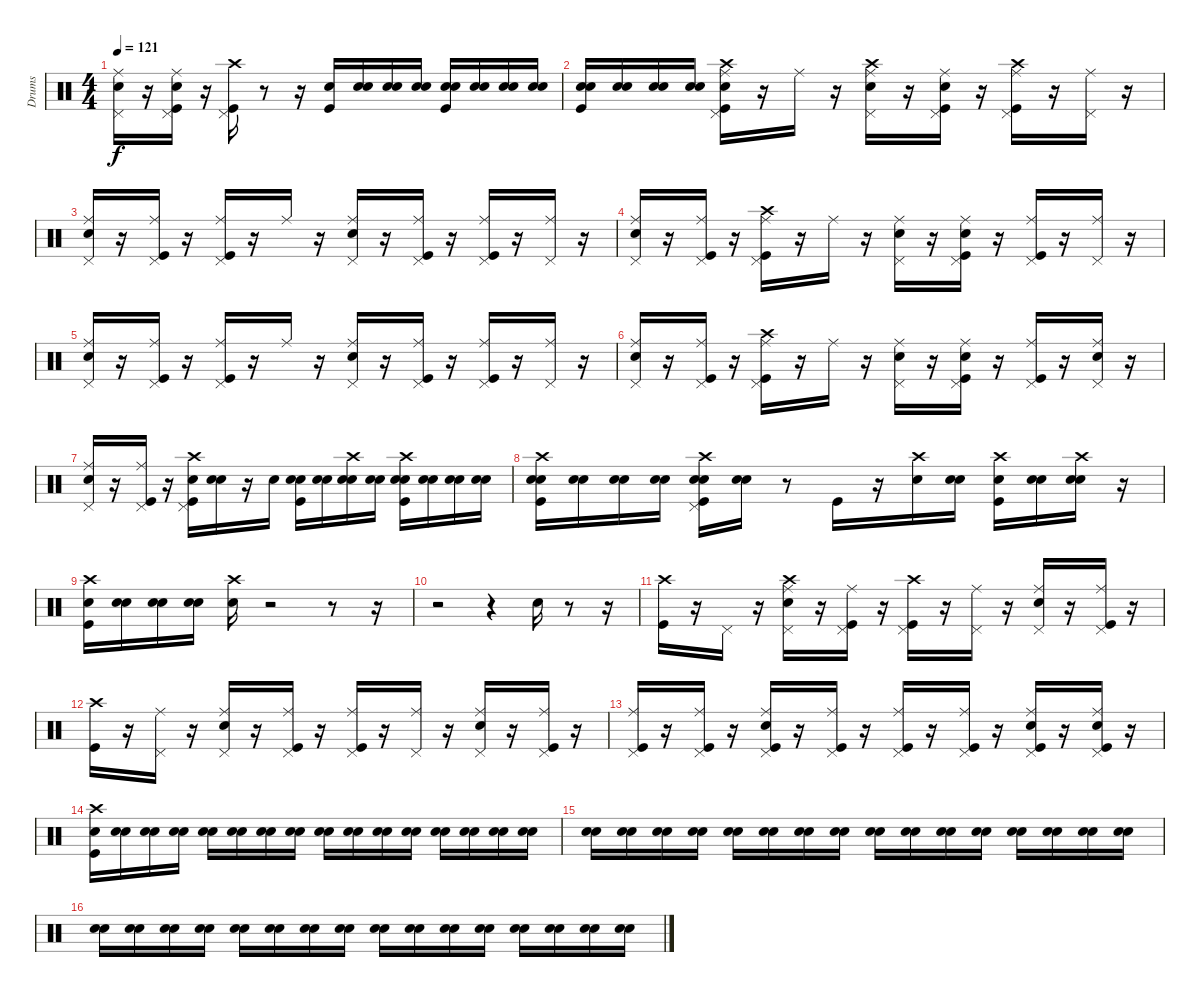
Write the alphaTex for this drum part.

\track ("Drums" "Drums") {instrument percussion}
\staff {score}
\articulation defaults
\ts (4 4)
\tempo 121
\clef neutral
\ks c
("Snare (hit) 2" "Pedal Hi-Hat (hit)" "Ride (middle)").16{dy f} r.16 ("Kick (hit)" "Pedal Hi-Hat (hit)" "Snare (hit) 2" "Ride (middle)").16 r.16 ("Pedal Hi-Hat (hit)" "Kick (hit)" "Crash high (hit)").16 r.8 r.16 ("Kick (hit)" "Snare (hit) 2").16 ("Snare (hit)" "Snare (hit) 2").16 ("Snare (hit)" "Snare (hit) 2").16 ("Snare (hit)" "Snare (hit) 2").16 ("Snare (hit)" "Kick (hit)" "Snare (hit) 2").16 ("Snare (hit)" "Snare (hit) 2").16 ("Snare (hit)" "Snare (hit) 2").16 ("Snare (hit)" "Snare (hit) 2").16 |
("Snare (hit)" "Kick (hit)" "Snare (hit) 2").16 ("Snare (hit)" "Snare (hit) 2").16 ("Snare (hit)" "Snare (hit) 2").16 ("Snare (hit)" "Snare (hit) 2").16 ("Snare (hit)" "Pedal Hi-Hat (hit)" "Kick (hit)" "Crash high (hit)" "Ride (middle)").16 r.16 "Ride (middle)".16 r.16 ("Snare (hit) 2" "Pedal Hi-Hat (hit)" "Crash high (hit)" "Ride (middle)").16 r.16 ("Kick (hit)" "Pedal Hi-Hat (hit)" "Snare (hit) 2" "Ride (middle)").16 r.16 ("Kick (hit)" "Ride (middle)" "Pedal Hi-Hat (hit)" "Crash high (hit)").16 r.16 ("Pedal Hi-Hat (hit)" "Ride (middle)").16 r.16 |
("Snare (hit) 2" "Pedal Hi-Hat (hit)" "Ride (middle)").16 r.16 ("Kick (hit)" "Ride (middle)" "Pedal Hi-Hat (hit)").16 r.16 ("Pedal Hi-Hat (hit)" "Kick (hit)" "Ride (middle)").16 r.16 "Ride (middle)".16 r.16 ("Snare (hit) 2" "Ride (middle)" "Pedal Hi-Hat (hit)").16 r.16 ("Kick (hit)" "Ride (middle)" "Pedal Hi-Hat (hit)").16 r.16 ("Kick (hit)" "Pedal Hi-Hat (hit)" "Ride (middle)").16 r.16 ("Pedal Hi-Hat (hit)" "Ride (middle)").16 r.16 |
("Snare (hit) 2" "Pedal Hi-Hat (hit)" "Ride (middle)").16 r.16 ("Kick (hit)" "Pedal Hi-Hat (hit)" "Ride (middle)").16 r.16 ("Pedal Hi-Hat (hit)" "Kick (hit)" "Crash high (hit)" "Ride (middle)").16 r.16 "Ride (middle)".16 r.16 ("Snare (hit) 2" "Pedal Hi-Hat (hit)" "Ride (middle)").16 r.16 ("Kick (hit)" "Snare (hit) 2" "Ride (middle)" "Pedal Hi-Hat (hit)").16 r.16 ("Kick (hit)" "Ride (middle)" "Pedal Hi-Hat (hit)").16 r.16 ("Pedal Hi-Hat (hit)" "Ride (middle)").16 r.16 |
("Snare (hit) 2" "Pedal Hi-Hat (hit)" "Ride (middle)").16 r.16 ("Kick (hit)" "Ride (middle)" "Pedal Hi-Hat (hit)").16 r.16 ("Pedal Hi-Hat (hit)" "Kick (hit)" "Ride (middle)").16 r.16 "Ride (middle)".16 r.16 ("Snare (hit) 2" "Pedal Hi-Hat (hit)" "Ride (middle)").16 r.16 ("Kick (hit)" "Ride (middle)" "Pedal Hi-Hat (hit)").16 r.16 ("Kick (hit)" "Ride (middle)" "Pedal Hi-Hat (hit)").16 r.16 ("Pedal Hi-Hat (hit)" "Ride (middle)").16 r.16 |
("Snare (hit) 2" "Ride (middle)" "Pedal Hi-Hat (hit)").16 r.16 ("Kick (hit)" "Pedal Hi-Hat (hit)" "Ride (middle)").16 r.16 ("Pedal Hi-Hat (hit)" "Kick (hit)" "Crash high (hit)" "Ride (middle)").16 r.16 "Ride (middle)".16 r.16 ("Snare (hit) 2" "Ride (middle)" "Pedal Hi-Hat (hit)").16 r.16 ("Kick (hit)" "Pedal Hi-Hat (hit)" "Snare (hit) 2" "Ride (middle)").16 r.16 ("Kick (hit)" "Pedal Hi-Hat (hit)" "Ride (middle)").16 r.16 ("Snare (hit) 2" "Ride (middle)" "Pedal Hi-Hat (hit)").16 r.16 |
("Snare (hit) 2" "Ride (middle)" "Pedal Hi-Hat (hit)").16 r.16 ("Kick (hit)" "Ride (middle)" "Pedal Hi-Hat (hit)").16 r.16 ("Snare (hit) 2" "Kick (hit)" "Crash high (hit)" "Pedal Hi-Hat (hit)").16 ("Snare (hit)" "Snare (hit) 2").16 r.16 "Snare (hit) 2".16 ("Snare (hit)" "Kick (hit)" "Snare (hit) 2").16 ("Snare (hit)" "Snare (hit) 2").16 ("Snare (hit)" "Snare (hit) 2" "Crash high (hit)").16 ("Snare (hit)" "Snare (hit) 2").16 ("Snare (hit)" "Kick (hit)" "Crash high (hit)" "Snare (hit) 2").16 ("Snare (hit)" "Snare (hit) 2").16 ("Snare (hit)" "Snare (hit) 2").16 ("Snare (hit)" "Snare (hit) 2").16 |
("Snare (hit)" "Kick (hit)" "Snare (hit) 2" "Crash high (hit)").16 ("Snare (hit)" "Snare (hit) 2").16 ("Snare (hit)" "Snare (hit) 2").16 ("Snare (hit)" "Snare (hit) 2").16 ("Snare (hit)" "Snare (hit) 2" "Kick (hit)" "Crash high (hit)" "Pedal Hi-Hat (hit)").16 ("Snare (hit)" "Snare (hit) 2").16 r.8 "Kick (hit)".16 r.16 ("Snare (hit) 2" "Crash high (hit)").16 ("Snare (hit)" "Snare (hit) 2").16 ("Snare (hit)" "Crash high (hit)" "Kick (hit)").16 ("Snare (hit)" "Snare (hit) 2").16 ("Snare (hit)" "Snare (hit) 2" "Crash high (hit)").16 r.16 |
("Kick (hit)" "Snare (hit) 2" "Crash high (hit)").16 ("Snare (hit)" "Snare (hit) 2").16 ("Snare (hit)" "Snare (hit) 2").16 ("Snare (hit)" "Snare (hit) 2").16 ("Snare (hit)" "Crash high (hit)").16 r.2 r.8 r.16 |
r.2 r.4 "Snare (hit) 2".16 r.8 r.16 |
("Crash high (hit)" "Kick (hit)").16 r.16 "Pedal Hi-Hat (hit)".16 r.16 ("Snare (hit) 2" "Ride (middle)" "Pedal Hi-Hat (hit)" "Crash high (hit)").16 r.16 ("Kick (hit)" "Ride (middle)" "Pedal Hi-Hat (hit)").16 r.16 ("Pedal Hi-Hat (hit)" "Kick (hit)" "Crash high (hit)").16 r.16 ("Pedal Hi-Hat (hit)" "Ride (middle)").16 r.16 ("Snare (hit) 2" "Pedal Hi-Hat (hit)" "Ride (middle)").16 r.16 ("Pedal Hi-Hat (hit)" "Kick (hit)" "Ride (middle)").16 r.16 |
("Crash high (hit)" "Kick (hit)").16 r.16 ("Pedal Hi-Hat (hit)" "Ride (middle)").16 r.16 ("Snare (hit) 2" "Pedal Hi-Hat (hit)" "Ride (middle)").16 r.16 ("Kick (hit)" "Ride (middle)" "Pedal Hi-Hat (hit)").16 r.16 ("Kick (hit)" "Ride (middle)" "Pedal Hi-Hat (hit)").16 r.16 ("Pedal Hi-Hat (hit)" "Ride (middle)").16 r.16 ("Snare (hit) 2" "Pedal Hi-Hat (hit)" "Ride (middle)").16 r.16 ("Kick (hit)" "Pedal Hi-Hat (hit)" "Ride (middle)").16 r.16 |
("Pedal Hi-Hat (hit)" "Kick (hit)" "Ride (middle)").16 r.16 ("Kick (hit)" "Ride (middle)" "Pedal Hi-Hat (hit)").16 r.16 ("Kick (hit)" "Pedal Hi-Hat (hit)" "Snare (hit) 2" "Ride (middle)").16 r.16 ("Kick (hit)" "Ride (middle)" "Pedal Hi-Hat (hit)").16 r.16 ("Kick (hit)" "Pedal Hi-Hat (hit)" "Ride (middle)").16 r.16 ("Kick (hit)" "Pedal Hi-Hat (hit)" "Ride (middle)").16 r.16 ("Kick (hit)" "Snare (hit) 2" "Ride (middle)" "Pedal Hi-Hat (hit)").16 r.16 ("Kick (hit)" "Snare (hit) 2" "Ride (middle)" "Pedal Hi-Hat (hit)").16 r.16 |
("Snare (hit) 2" "Kick (hit)" "Crash high (hit)").16 ("Snare (hit)" "Snare (hit) 2").16 ("Snare (hit)" "Snare (hit) 2").16 ("Snare (hit)" "Snare (hit) 2").16 ("Snare (hit)" "Snare (hit) 2").16 ("Snare (hit)" "Snare (hit) 2").16 ("Snare (hit)" "Snare (hit) 2").16 ("Snare (hit)" "Snare (hit) 2").16 ("Snare (hit)" "Snare (hit) 2").16 ("Snare (hit)" "Snare (hit) 2").16 ("Snare (hit)" "Snare (hit) 2").16 ("Snare (hit)" "Snare (hit) 2").16 ("Snare (hit)" "Snare (hit) 2").16 ("Snare (hit)" "Snare (hit) 2").16 ("Snare (hit)" "Snare (hit) 2").16 ("Snare (hit)" "Snare (hit) 2").16 |
("Snare (hit)" "Snare (hit) 2").16 ("Snare (hit)" "Snare (hit) 2").16 ("Snare (hit)" "Snare (hit) 2").16 ("Snare (hit)" "Snare (hit) 2").16 ("Snare (hit)" "Snare (hit) 2").16 ("Snare (hit)" "Snare (hit) 2").16 ("Snare (hit)" "Snare (hit) 2").16 ("Snare (hit)" "Snare (hit) 2").16 ("Snare (hit)" "Snare (hit) 2").16 ("Snare (hit)" "Snare (hit) 2").16 ("Snare (hit)" "Snare (hit) 2").16 ("Snare (hit)" "Snare (hit) 2").16 ("Snare (hit)" "Snare (hit) 2").16 ("Snare (hit)" "Snare (hit) 2").16 ("Snare (hit)" "Snare (hit) 2").16 ("Snare (hit)" "Snare (hit) 2").16 |
("Snare (hit)" "Snare (hit) 2").16 ("Snare (hit)" "Snare (hit) 2").16 ("Snare (hit)" "Snare (hit) 2").16 ("Snare (hit)" "Snare (hit) 2").16 ("Snare (hit)" "Snare (hit) 2").16 ("Snare (hit)" "Snare (hit) 2").16 ("Snare (hit)" "Snare (hit) 2").16 ("Snare (hit)" "Snare (hit) 2").16 ("Snare (hit)" "Snare (hit) 2").16 ("Snare (hit)" "Snare (hit) 2").16 ("Snare (hit)" "Snare (hit) 2").16 ("Snare (hit)" "Snare (hit) 2").16 ("Snare (hit)" "Snare (hit) 2").16 ("Snare (hit)" "Snare (hit) 2").16 ("Snare (hit)" "Snare (hit) 2").16 ("Snare (hit)" "Snare (hit) 2").16
